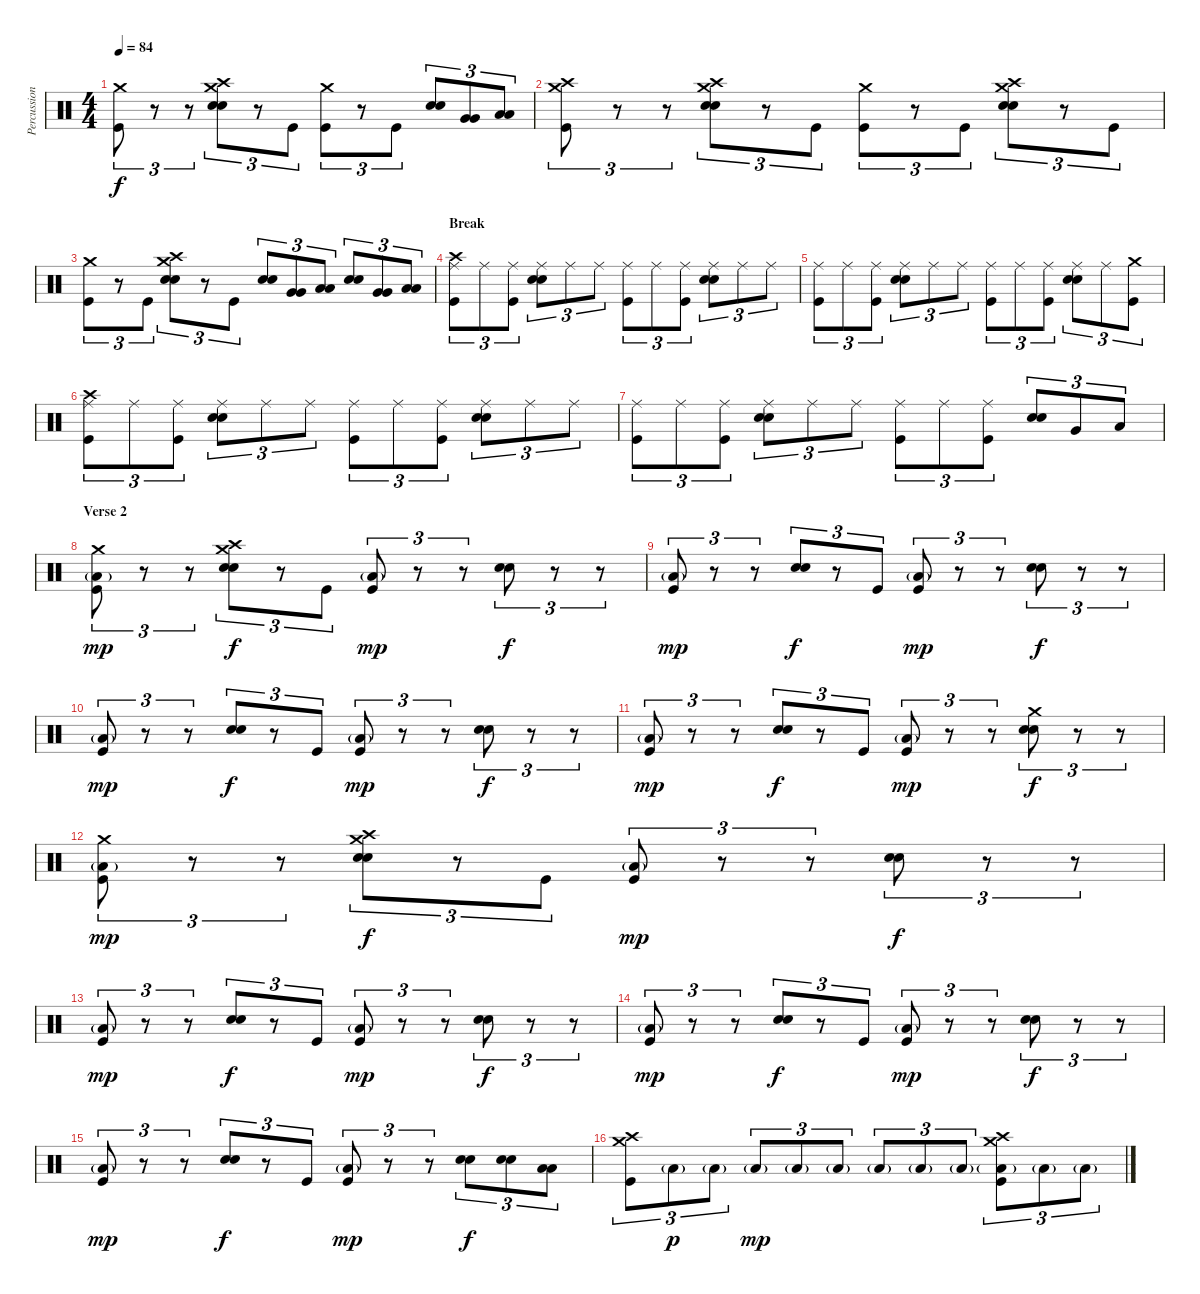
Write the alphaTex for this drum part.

\track ("Percussion" "Percussion") {instrument percussion}
\staff {score}
\articulation defaults
\ts (4 4)
\tempo 84
\clef neutral
\ks c
("Crash medium (hit)" "Kick (hit)").8{tu (3 2) dy f} r.8{tu (3 2)} r.8{tu (3 2)} ("Crash high (hit)" "Crash medium (hit)" "Snare (hit) 2" "Snare (hit) 2").8{tu (3 2)} r.8{tu (3 2)} "Kick (hit)".8{tu (3 2)} ("Crash medium (hit)" "Kick (hit)").8{tu (3 2)} r.8{tu (3 2)} "Kick (hit)".8{tu (3 2)} ("Snare (hit) 2" "Snare (hit) 2").8{tu (3 2)} ("Very Low Tom (hit)" "Very Low Tom (hit)").8{tu (3 2)} ("Low Floor Tom (hit)" "Low Floor Tom (hit)").8{tu (3 2)} |
("Crash high (hit)" "Crash medium (hit)" "Kick (hit)").8{tu (3 2)} r.8{tu (3 2)} r.8{tu (3 2)} ("Crash high (hit)" "Crash medium (hit)" "Snare (hit) 2" "Snare (hit) 2").8{tu (3 2)} r.8{tu (3 2)} "Kick (hit)".8{tu (3 2)} ("Crash medium (hit)" "Kick (hit)").8{tu (3 2)} r.8{tu (3 2)} "Kick (hit)".8{tu (3 2)} ("Crash high (hit)" "Crash medium (hit)" "Snare (hit) 2" "Snare (hit) 2").8{tu (3 2)} r.8{tu (3 2)} "Kick (hit)".8{tu (3 2)} |
("Crash medium (hit)" "Kick (hit)").8{tu (3 2)} r.8{tu (3 2)} "Kick (hit)".8{tu (3 2)} ("Crash high (hit)" "Crash medium (hit)" "Snare (hit) 2" "Snare (hit) 2").8{tu (3 2)} r.8{tu (3 2)} "Kick (hit)".8{tu (3 2)} ("Snare (hit) 2" "Snare (hit) 2").8{tu (3 2)} ("Very Low Tom (hit)" "Very Low Tom (hit)").8{tu (3 2)} ("Low Floor Tom (hit)" "Low Floor Tom (hit)").8{tu (3 2)} ("Snare (hit) 2" "Snare (hit) 2").8{tu (3 2)} ("Very Low Tom (hit)" "Very Low Tom (hit)").8{tu (3 2)} ("Low Floor Tom (hit)" "Low Floor Tom (hit)").8{tu (3 2)} |
\section ("" "Break")
("Crash high (hit)" "Ride (middle)" "Kick (hit)").8{tu (3 2)} "Ride (middle)".8{tu (3 2)} ("Ride (middle)" "Kick (hit)").8{tu (3 2)} ("Ride (middle)" "Snare (hit) 2" "Snare (hit) 2").8{tu (3 2)} "Ride (middle)".8{tu (3 2)} "Ride (middle)".8{tu (3 2)} ("Ride (middle)" "Kick (hit)").8{tu (3 2)} "Ride (middle)".8{tu (3 2)} ("Ride (middle)" "Kick (hit)").8{tu (3 2)} ("Ride (middle)" "Snare (hit) 2" "Snare (hit) 2").8{tu (3 2)} "Ride (middle)".8{tu (3 2)} "Ride (middle)".8{tu (3 2)} |
("Ride (middle)" "Kick (hit)").8{tu (3 2)} "Ride (middle)".8{tu (3 2)} ("Ride (middle)" "Kick (hit)").8{tu (3 2)} ("Ride (middle)" "Snare (hit) 2" "Snare (hit) 2").8{tu (3 2)} "Ride (middle)".8{tu (3 2)} "Ride (middle)".8{tu (3 2)} ("Ride (middle)" "Kick (hit)").8{tu (3 2)} "Ride (middle)".8{tu (3 2)} ("Ride (middle)" "Kick (hit)").8{tu (3 2)} ("Ride (middle)" "Snare (hit) 2" "Snare (hit) 2").8{tu (3 2)} "Ride (middle)".8{tu (3 2)} ("Crash medium (hit)" "Kick (hit)").8{tu (3 2)} |
("Crash high (hit)" "Ride (middle)" "Kick (hit)").8{tu (3 2)} "Ride (middle)".8{tu (3 2)} ("Ride (middle)" "Kick (hit)").8{tu (3 2)} ("Ride (middle)" "Snare (hit) 2" "Snare (hit) 2").8{tu (3 2)} "Ride (middle)".8{tu (3 2)} "Ride (middle)".8{tu (3 2)} ("Ride (middle)" "Kick (hit)").8{tu (3 2)} "Ride (middle)".8{tu (3 2)} ("Ride (middle)" "Kick (hit)").8{tu (3 2)} ("Ride (middle)" "Snare (hit) 2" "Snare (hit) 2").8{tu (3 2)} "Ride (middle)".8{tu (3 2)} "Ride (middle)".8{tu (3 2)} |
("Ride (middle)" "Kick (hit)").8{tu (3 2)} "Ride (middle)".8{tu (3 2)} ("Ride (middle)" "Kick (hit)").8{tu (3 2)} ("Ride (middle)" "Snare (hit) 2" "Snare (hit) 2").8{tu (3 2)} "Ride (middle)".8{tu (3 2)} "Ride (middle)".8{tu (3 2)} ("Ride (middle)" "Kick (hit)").8{tu (3 2)} "Ride (middle)".8{tu (3 2)} ("Ride (middle)" "Kick (hit)").8{tu (3 2)} ("Snare (hit) 2" "Snare (hit) 2").8{tu (3 2)} "Very Low Tom (hit)".8{tu (3 2)} "Low Floor Tom (hit)".8{tu (3 2)} |
\section ("" "Verse 2")
("Crash medium (hit)" "Kick (hit)" "Low Floor Tom (hit)"{g}).8{tu (3 2) dy mp} r.8{tu (3 2)} r.8{tu (3 2)} ("Crash high (hit)" "Crash medium (hit)" "Snare (hit) 2" "Snare (hit) 2").8{tu (3 2) dy f} r.8{tu (3 2)} "Kick (hit)".8{tu (3 2)} ("Kick (hit)" "Low Floor Tom (hit)"{g}).8{tu (3 2) dy mp} r.8{tu (3 2)} r.8{tu (3 2)} ("Snare (hit) 2" "Snare (hit) 2").8{tu (3 2) dy f} r.8{tu (3 2)} r.8{tu (3 2)} |
("Kick (hit)" "Low Floor Tom (hit)"{g}).8{tu (3 2) dy mp} r.8{tu (3 2)} r.8{tu (3 2)} ("Snare (hit) 2" "Snare (hit) 2").8{tu (3 2) dy f} r.8{tu (3 2)} "Kick (hit)".8{tu (3 2)} ("Kick (hit)" "Low Floor Tom (hit)"{g}).8{tu (3 2) dy mp} r.8{tu (3 2)} r.8{tu (3 2)} ("Snare (hit) 2" "Snare (hit) 2").8{tu (3 2) dy f} r.8{tu (3 2)} r.8{tu (3 2)} |
("Kick (hit)" "Low Floor Tom (hit)"{g}).8{tu (3 2) dy mp} r.8{tu (3 2)} r.8{tu (3 2)} ("Snare (hit) 2" "Snare (hit) 2").8{tu (3 2) dy f} r.8{tu (3 2)} "Kick (hit)".8{tu (3 2)} ("Kick (hit)" "Low Floor Tom (hit)"{g}).8{tu (3 2) dy mp} r.8{tu (3 2)} r.8{tu (3 2)} ("Snare (hit) 2" "Snare (hit) 2").8{tu (3 2) dy f} r.8{tu (3 2)} r.8{tu (3 2)} |
("Kick (hit)" "Low Floor Tom (hit)"{g}).8{tu (3 2) dy mp} r.8{tu (3 2)} r.8{tu (3 2)} ("Snare (hit) 2" "Snare (hit) 2").8{tu (3 2) dy f} r.8{tu (3 2)} "Kick (hit)".8{tu (3 2)} ("Kick (hit)" "Low Floor Tom (hit)"{g}).8{tu (3 2) dy mp} r.8{tu (3 2)} r.8{tu (3 2)} ("Crash medium (hit)" "Snare (hit) 2" "Snare (hit) 2").8{tu (3 2) dy f} r.8{tu (3 2)} r.8{tu (3 2)} |
("Crash medium (hit)" "Kick (hit)" "Low Floor Tom (hit)"{g}).8{tu (3 2) dy mp} r.8{tu (3 2)} r.8{tu (3 2)} ("Crash high (hit)" "Crash medium (hit)" "Snare (hit) 2" "Snare (hit) 2").8{tu (3 2) dy f} r.8{tu (3 2)} "Kick (hit)".8{tu (3 2)} ("Kick (hit)" "Low Floor Tom (hit)"{g}).8{tu (3 2) dy mp} r.8{tu (3 2)} r.8{tu (3 2)} ("Snare (hit) 2" "Snare (hit) 2").8{tu (3 2) dy f} r.8{tu (3 2)} r.8{tu (3 2)} |
("Kick (hit)" "Low Floor Tom (hit)"{g}).8{tu (3 2) dy mp} r.8{tu (3 2)} r.8{tu (3 2)} ("Snare (hit) 2" "Snare (hit) 2").8{tu (3 2) dy f} r.8{tu (3 2)} "Kick (hit)".8{tu (3 2)} ("Kick (hit)" "Low Floor Tom (hit)"{g}).8{tu (3 2) dy mp} r.8{tu (3 2)} r.8{tu (3 2)} ("Snare (hit) 2" "Snare (hit) 2").8{tu (3 2) dy f} r.8{tu (3 2)} r.8{tu (3 2)} |
("Kick (hit)" "Low Floor Tom (hit)"{g}).8{tu (3 2) dy mp} r.8{tu (3 2)} r.8{tu (3 2)} ("Snare (hit) 2" "Snare (hit) 2").8{tu (3 2) dy f} r.8{tu (3 2)} "Kick (hit)".8{tu (3 2)} ("Kick (hit)" "Low Floor Tom (hit)"{g}).8{tu (3 2) dy mp} r.8{tu (3 2)} r.8{tu (3 2)} ("Snare (hit) 2" "Snare (hit) 2").8{tu (3 2) dy f} r.8{tu (3 2)} r.8{tu (3 2)} |
("Kick (hit)" "Low Floor Tom (hit)"{g}).8{tu (3 2) dy mp} r.8{tu (3 2)} r.8{tu (3 2)} ("Snare (hit) 2" "Snare (hit) 2").8{tu (3 2) dy f} r.8{tu (3 2)} "Kick (hit)".8{tu (3 2)} ("Kick (hit)" "Low Floor Tom (hit)"{g}).8{tu (3 2) dy mp} r.8{tu (3 2)} r.8{tu (3 2)} ("Snare (hit) 2" "Snare (hit) 2").8{tu (3 2) dy f} ("Snare (hit) 2" "Snare (hit) 2").8{tu (3 2)} ("Low Floor Tom (hit)" "Low Floor Tom (hit)").8{tu (3 2)} |
\section ("" "")
("Crash high (hit)" "Crash medium (hit)" "Kick (hit)").8{tu (3 2)} "Low Floor Tom (hit)"{g}.8{tu (3 2) dy p} "Low Floor Tom (hit)"{g}.8{tu (3 2)} "Low Floor Tom (hit)"{g}.8{tu (3 2) dy mp} "Low Floor Tom (hit)"{g}.8{tu (3 2)} "Low Floor Tom (hit)"{g}.8{tu (3 2)} "Low Floor Tom (hit)"{g}.8{tu (3 2)} "Low Floor Tom (hit)"{g}.8{tu (3 2)} "Low Floor Tom (hit)"{g}.8{tu (3 2)} ("Crash high (hit)" "Crash medium (hit)" "Kick (hit)" "Low Floor Tom (hit)"{g}).8{tu (3 2)} "Low Floor Tom (hit)"{g}.8{tu (3 2)} "Low Floor Tom (hit)"{g}.8{tu (3 2)}
